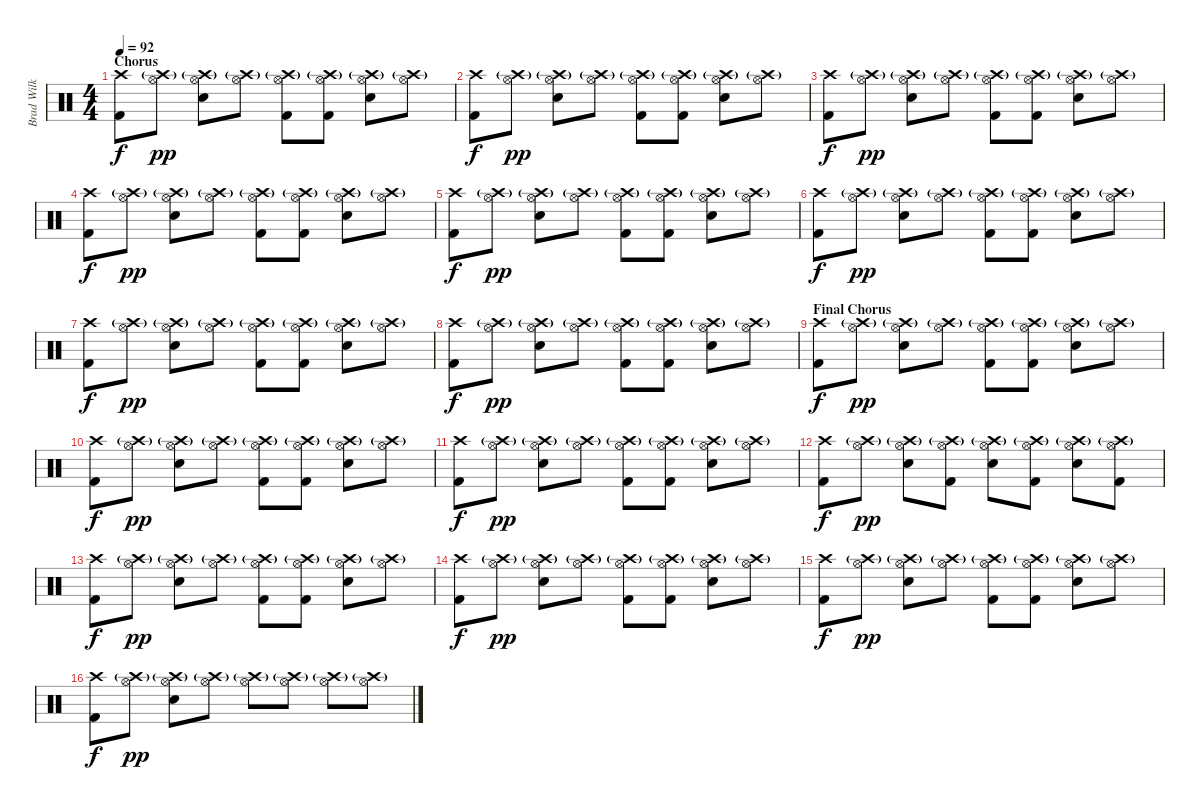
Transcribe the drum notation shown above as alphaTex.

\track ("Brad Wilk" "Brad Wilk") {instrument percussion}
\staff {score}
\articulation defaults
\ts (4 4)
\section ("" "Chorus")
\tempo 92
\clef neutral
\ks c
("Crash high (hit)" "Kick (hit) 2").8{dy f} ("Hi-Hat (open)" "Crash high (hit)"{g}).8{dy pp} ("Hi-Hat (open)" "Crash high (hit)"{g} "Electric Snare (hit)").8 ("Hi-Hat (open)" "Crash high (hit)"{g}).8 ("Hi-Hat (open)" "Crash high (hit)"{g} "Kick (hit) 2").8 ("Hi-Hat (open)" "Crash high (hit)"{g} "Kick (hit) 2").8 ("Hi-Hat (open)" "Crash high (hit)"{g} "Electric Snare (hit)").8 ("Hi-Hat (open)" "Crash high (hit)"{g}).8 |
("Crash high (hit)" "Kick (hit) 2").8{dy f} ("Hi-Hat (open)" "Crash high (hit)"{g}).8{dy pp} ("Hi-Hat (open)" "Crash high (hit)"{g} "Electric Snare (hit)").8 ("Hi-Hat (open)" "Crash high (hit)"{g}).8 ("Hi-Hat (open)" "Crash high (hit)"{g} "Kick (hit) 2").8 ("Hi-Hat (open)" "Crash high (hit)"{g} "Kick (hit) 2").8 ("Hi-Hat (open)" "Crash high (hit)"{g} "Electric Snare (hit)").8 ("Hi-Hat (open)" "Crash high (hit)"{g}).8 |
("Crash high (hit)" "Kick (hit) 2").8{dy f} ("Hi-Hat (open)" "Crash high (hit)"{g}).8{dy pp} ("Hi-Hat (open)" "Crash high (hit)"{g} "Electric Snare (hit)").8 ("Hi-Hat (open)" "Crash high (hit)"{g}).8 ("Hi-Hat (open)" "Crash high (hit)"{g} "Kick (hit) 2").8 ("Hi-Hat (open)" "Crash high (hit)"{g} "Kick (hit) 2").8 ("Hi-Hat (open)" "Crash high (hit)"{g} "Electric Snare (hit)").8 ("Hi-Hat (open)" "Crash high (hit)"{g}).8 |
("Crash high (hit)" "Kick (hit) 2").8{dy f} ("Hi-Hat (open)" "Crash high (hit)"{g}).8{dy pp} ("Hi-Hat (open)" "Crash high (hit)"{g} "Electric Snare (hit)").8 ("Hi-Hat (open)" "Crash high (hit)"{g}).8 ("Hi-Hat (open)" "Crash high (hit)"{g} "Kick (hit) 2").8 ("Hi-Hat (open)" "Crash high (hit)"{g} "Kick (hit) 2").8 ("Hi-Hat (open)" "Crash high (hit)"{g} "Electric Snare (hit)").8 ("Hi-Hat (open)" "Crash high (hit)"{g}).8 |
("Crash high (hit)" "Kick (hit) 2").8{dy f} ("Hi-Hat (open)" "Crash high (hit)"{g}).8{dy pp} ("Hi-Hat (open)" "Crash high (hit)"{g} "Electric Snare (hit)").8 ("Hi-Hat (open)" "Crash high (hit)"{g}).8 ("Hi-Hat (open)" "Crash high (hit)"{g} "Kick (hit) 2").8 ("Hi-Hat (open)" "Crash high (hit)"{g} "Kick (hit) 2").8 ("Hi-Hat (open)" "Crash high (hit)"{g} "Electric Snare (hit)").8 ("Hi-Hat (open)" "Crash high (hit)"{g}).8 |
("Crash high (hit)" "Kick (hit) 2").8{dy f} ("Hi-Hat (open)" "Crash high (hit)"{g}).8{dy pp} ("Hi-Hat (open)" "Crash high (hit)"{g} "Electric Snare (hit)").8 ("Hi-Hat (open)" "Crash high (hit)"{g}).8 ("Hi-Hat (open)" "Crash high (hit)"{g} "Kick (hit) 2").8 ("Hi-Hat (open)" "Crash high (hit)"{g} "Kick (hit) 2").8 ("Hi-Hat (open)" "Crash high (hit)"{g} "Electric Snare (hit)").8 ("Hi-Hat (open)" "Crash high (hit)"{g}).8 |
("Crash high (hit)" "Kick (hit) 2").8{dy f} ("Hi-Hat (open)" "Crash high (hit)"{g}).8{dy pp} ("Hi-Hat (open)" "Crash high (hit)"{g} "Electric Snare (hit)").8 ("Hi-Hat (open)" "Crash high (hit)"{g}).8 ("Hi-Hat (open)" "Crash high (hit)"{g} "Kick (hit) 2").8 ("Hi-Hat (open)" "Crash high (hit)"{g} "Kick (hit) 2").8 ("Hi-Hat (open)" "Crash high (hit)"{g} "Electric Snare (hit)").8 ("Hi-Hat (open)" "Crash high (hit)"{g}).8 |
("Crash high (hit)" "Kick (hit) 2").8{dy f} ("Hi-Hat (open)" "Crash high (hit)"{g}).8{dy pp} ("Hi-Hat (open)" "Crash high (hit)"{g} "Electric Snare (hit)").8 ("Hi-Hat (open)" "Crash high (hit)"{g}).8 ("Hi-Hat (open)" "Crash high (hit)"{g} "Kick (hit) 2").8 ("Hi-Hat (open)" "Crash high (hit)"{g} "Kick (hit) 2").8 ("Hi-Hat (open)" "Crash high (hit)"{g} "Electric Snare (hit)").8 ("Hi-Hat (open)" "Crash high (hit)"{g}).8 |
\section ("" "Final Chorus")
("Crash high (hit)" "Kick (hit) 2").8{dy f} ("Hi-Hat (open)" "Crash high (hit)"{g}).8{dy pp} ("Hi-Hat (open)" "Crash high (hit)"{g} "Electric Snare (hit)").8 ("Hi-Hat (open)" "Crash high (hit)"{g}).8 ("Hi-Hat (open)" "Crash high (hit)"{g} "Kick (hit) 2").8 ("Hi-Hat (open)" "Crash high (hit)"{g} "Kick (hit) 2").8 ("Hi-Hat (open)" "Crash high (hit)"{g} "Electric Snare (hit)").8 ("Hi-Hat (open)" "Crash high (hit)"{g}).8 |
("Crash high (hit)" "Kick (hit) 2").8{dy f} ("Hi-Hat (open)" "Crash high (hit)"{g}).8{dy pp} ("Hi-Hat (open)" "Crash high (hit)"{g} "Electric Snare (hit)").8 ("Hi-Hat (open)" "Crash high (hit)"{g}).8 ("Hi-Hat (open)" "Crash high (hit)"{g} "Kick (hit) 2").8 ("Hi-Hat (open)" "Crash high (hit)"{g} "Kick (hit) 2").8 ("Hi-Hat (open)" "Crash high (hit)"{g} "Electric Snare (hit)").8 ("Hi-Hat (open)" "Crash high (hit)"{g}).8 |
("Crash high (hit)" "Kick (hit) 2").8{dy f} ("Hi-Hat (open)" "Crash high (hit)"{g}).8{dy pp} ("Hi-Hat (open)" "Crash high (hit)"{g} "Electric Snare (hit)").8 ("Hi-Hat (open)" "Crash high (hit)"{g}).8 ("Hi-Hat (open)" "Crash high (hit)"{g} "Kick (hit) 2").8 ("Hi-Hat (open)" "Crash high (hit)"{g} "Kick (hit) 2").8 ("Hi-Hat (open)" "Crash high (hit)"{g} "Electric Snare (hit)").8 ("Hi-Hat (open)" "Crash high (hit)"{g}).8 |
("Crash high (hit)" "Kick (hit) 2").8{dy f} ("Hi-Hat (open)" "Crash high (hit)"{g}).8{dy pp} ("Hi-Hat (open)" "Crash high (hit)"{g} "Electric Snare (hit)").8 ("Hi-Hat (open)" "Crash high (hit)"{g} "Kick (hit) 2").8 ("Hi-Hat (open)" "Crash high (hit)"{g} "Electric Snare (hit)").8 ("Hi-Hat (open)" "Crash high (hit)"{g} "Kick (hit) 2").8 ("Hi-Hat (open)" "Crash high (hit)"{g} "Electric Snare (hit)").8 ("Hi-Hat (open)" "Crash high (hit)"{g} "Kick (hit) 2").8 |
("Crash high (hit)" "Kick (hit) 2").8{dy f} ("Hi-Hat (open)" "Crash high (hit)"{g}).8{dy pp} ("Hi-Hat (open)" "Crash high (hit)"{g} "Electric Snare (hit)").8 ("Hi-Hat (open)" "Crash high (hit)"{g}).8 ("Hi-Hat (open)" "Crash high (hit)"{g} "Kick (hit) 2").8 ("Hi-Hat (open)" "Crash high (hit)"{g} "Kick (hit) 2").8 ("Hi-Hat (open)" "Crash high (hit)"{g} "Electric Snare (hit)").8 ("Hi-Hat (open)" "Crash high (hit)"{g}).8 |
("Crash high (hit)" "Kick (hit) 2").8{dy f} ("Hi-Hat (open)" "Crash high (hit)"{g}).8{dy pp} ("Hi-Hat (open)" "Crash high (hit)"{g} "Electric Snare (hit)").8 ("Hi-Hat (open)" "Crash high (hit)"{g}).8 ("Hi-Hat (open)" "Crash high (hit)"{g} "Kick (hit) 2").8 ("Hi-Hat (open)" "Crash high (hit)"{g} "Kick (hit) 2").8 ("Hi-Hat (open)" "Crash high (hit)"{g} "Electric Snare (hit)").8 ("Hi-Hat (open)" "Crash high (hit)"{g}).8 |
("Crash high (hit)" "Kick (hit) 2").8{dy f} ("Hi-Hat (open)" "Crash high (hit)"{g}).8{dy pp} ("Hi-Hat (open)" "Crash high (hit)"{g} "Electric Snare (hit)").8 ("Hi-Hat (open)" "Crash high (hit)"{g}).8 ("Hi-Hat (open)" "Crash high (hit)"{g} "Kick (hit) 2").8 ("Hi-Hat (open)" "Crash high (hit)"{g} "Kick (hit) 2").8 ("Hi-Hat (open)" "Crash high (hit)"{g} "Electric Snare (hit)").8 ("Hi-Hat (open)" "Crash high (hit)"{g}).8 |
("Crash high (hit)" "Kick (hit) 2").8{dy f} ("Hi-Hat (open)" "Crash high (hit)"{g}).8{dy pp} ("Hi-Hat (open)" "Crash high (hit)"{g} "Electric Snare (hit)").8 ("Hi-Hat (open)" "Crash high (hit)"{g}).8 ("Hi-Hat (open)" "Crash high (hit)"{g}).8 ("Hi-Hat (open)" "Crash high (hit)"{g}).8 ("Hi-Hat (open)" "Crash high (hit)"{g}).8 ("Hi-Hat (open)" "Crash high (hit)"{g}).8
